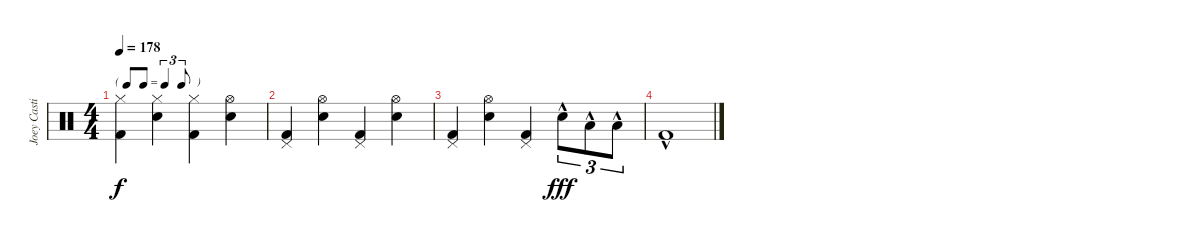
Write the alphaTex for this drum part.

\track ("Joey Castillo" "Joey Casti") {instrument percussion}
\staff {score}
\articulation defaults
\ts (4 4)
\tf triplet8th
\tempo 178
\clef neutral
\ks c
("Hi-Hat (closed)" "Kick (hit) 2").4{dy f} ("Hi-Hat (closed)" "Snare (hit) 2").4 ("Hi-Hat (closed)" "Kick (hit) 2").4 ("Hi-Hat (open)" "Snare (hit) 2").4 |
("Pedal Hi-Hat (hit)" "Kick (hit) 2").4 ("Hi-Hat (open)" "Snare (hit) 2").4 ("Pedal Hi-Hat (hit)" "Kick (hit) 2").4 ("Hi-Hat (open)" "Snare (hit) 2").4 |
("Pedal Hi-Hat (hit)" "Kick (hit) 2").4 ("Hi-Hat (open)" "Snare (hit) 2").4 ("Pedal Hi-Hat (hit)" "Kick (hit) 2").4 "Snare (hit) 2"{hac}.8{tu (3 2) dy fff} "Low Tom (hit)"{hac}.8{tu (3 2)} "Low Floor Tom (hit)"{hac}.8{tu (3 2)} |
"Kick (hit) 2"{hac}.1
